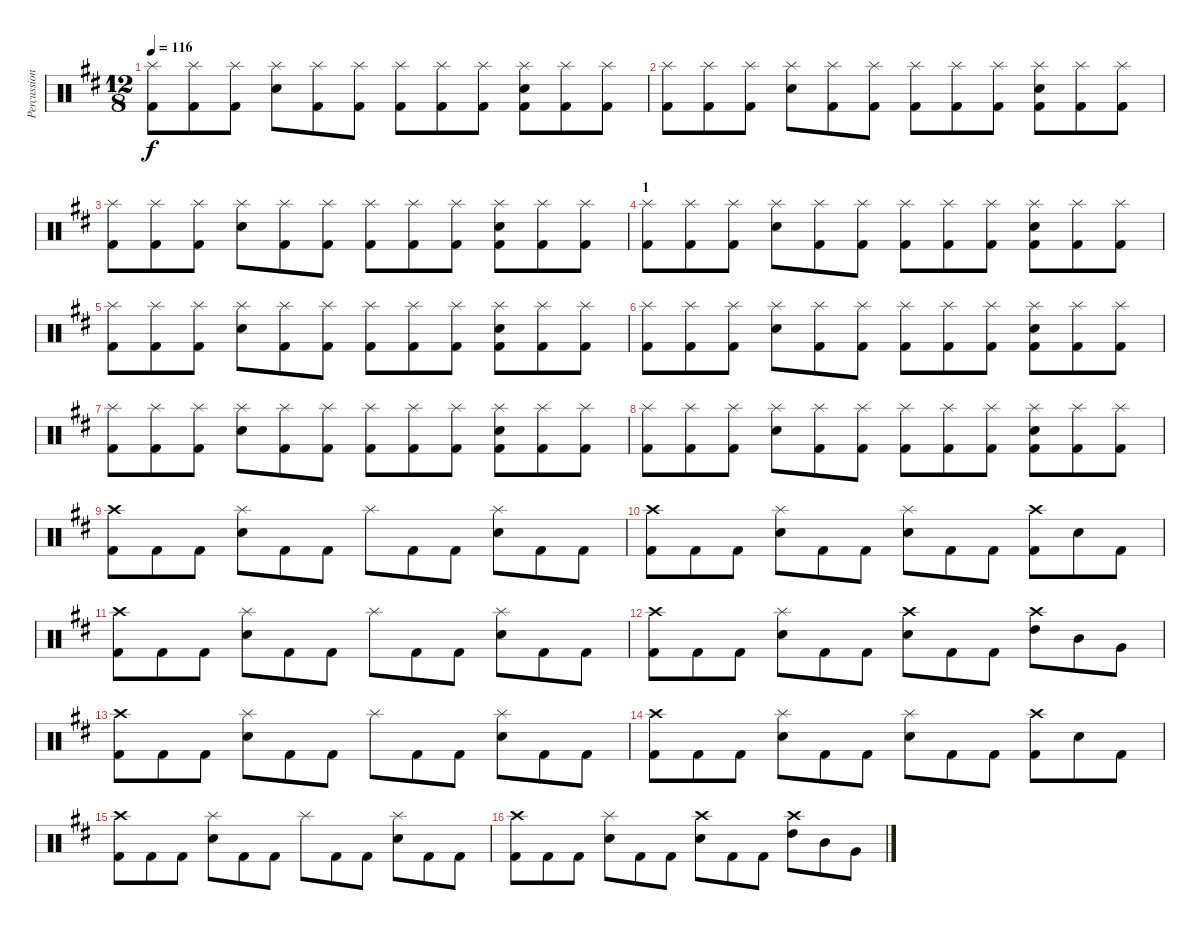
\track ("Percussion" "Percussion") {instrument percussion}
\staff {score}
\articulation defaults
\ts (12 8)
\tempo 116
\clef neutral
\ks bminor
("Splash (hit)" "Kick (hit) 2").8{dy f} ("Splash (hit)" "Kick (hit) 2").8 ("Splash (hit)" "Kick (hit) 2").8 ("Splash (hit)" "Snare (hit) 2").8 ("Splash (hit)" "Kick (hit) 2").8 ("Splash (hit)" "Kick (hit) 2").8 ("Splash (hit)" "Kick (hit) 2").8 ("Splash (hit)" "Kick (hit) 2").8 ("Splash (hit)" "Kick (hit) 2").8 ("Splash (hit)" "Snare (hit) 2" "Kick (hit) 2").8 ("Splash (hit)" "Kick (hit) 2").8 ("Splash (hit)" "Kick (hit) 2").8 |
("Splash (hit)" "Kick (hit) 2").8 ("Splash (hit)" "Kick (hit) 2").8 ("Splash (hit)" "Kick (hit) 2").8 ("Splash (hit)" "Snare (hit) 2").8 ("Splash (hit)" "Kick (hit) 2").8 ("Splash (hit)" "Kick (hit) 2").8 ("Splash (hit)" "Kick (hit) 2").8 ("Splash (hit)" "Kick (hit) 2").8 ("Splash (hit)" "Kick (hit) 2").8 ("Splash (hit)" "Snare (hit) 2" "Kick (hit) 2").8 ("Splash (hit)" "Kick (hit) 2").8 ("Splash (hit)" "Kick (hit) 2").8 |
("Splash (hit)" "Kick (hit) 2").8 ("Splash (hit)" "Kick (hit) 2").8 ("Splash (hit)" "Kick (hit) 2").8 ("Splash (hit)" "Snare (hit) 2").8 ("Splash (hit)" "Kick (hit) 2").8 ("Splash (hit)" "Kick (hit) 2").8 ("Splash (hit)" "Kick (hit) 2").8 ("Splash (hit)" "Kick (hit) 2").8 ("Splash (hit)" "Kick (hit) 2").8 ("Splash (hit)" "Snare (hit) 2" "Kick (hit) 2").8 ("Splash (hit)" "Kick (hit) 2").8 ("Splash (hit)" "Kick (hit) 2").8 |
\section ("" "1")
("Splash (hit)" "Kick (hit) 2").8 ("Splash (hit)" "Kick (hit) 2").8 ("Splash (hit)" "Kick (hit) 2").8 ("Splash (hit)" "Snare (hit) 2").8 ("Splash (hit)" "Kick (hit) 2").8 ("Splash (hit)" "Kick (hit) 2").8 ("Splash (hit)" "Kick (hit) 2").8 ("Splash (hit)" "Kick (hit) 2").8 ("Splash (hit)" "Kick (hit) 2").8 ("Splash (hit)" "Snare (hit) 2" "Kick (hit) 2").8 ("Splash (hit)" "Kick (hit) 2").8 ("Splash (hit)" "Kick (hit) 2").8 |
("Splash (hit)" "Kick (hit) 2").8 ("Splash (hit)" "Kick (hit) 2").8 ("Splash (hit)" "Kick (hit) 2").8 ("Splash (hit)" "Snare (hit) 2").8 ("Splash (hit)" "Kick (hit) 2").8 ("Splash (hit)" "Kick (hit) 2").8 ("Splash (hit)" "Kick (hit) 2").8 ("Splash (hit)" "Kick (hit) 2").8 ("Splash (hit)" "Kick (hit) 2").8 ("Splash (hit)" "Snare (hit) 2" "Kick (hit) 2").8 ("Splash (hit)" "Kick (hit) 2").8 ("Splash (hit)" "Kick (hit) 2").8 |
("Splash (hit)" "Kick (hit) 2").8 ("Splash (hit)" "Kick (hit) 2").8 ("Splash (hit)" "Kick (hit) 2").8 ("Splash (hit)" "Snare (hit) 2").8 ("Splash (hit)" "Kick (hit) 2").8 ("Splash (hit)" "Kick (hit) 2").8 ("Splash (hit)" "Kick (hit) 2").8 ("Splash (hit)" "Kick (hit) 2").8 ("Splash (hit)" "Kick (hit) 2").8 ("Splash (hit)" "Snare (hit) 2" "Kick (hit) 2").8 ("Splash (hit)" "Kick (hit) 2").8 ("Splash (hit)" "Kick (hit) 2").8 |
("Splash (hit)" "Kick (hit) 2").8 ("Splash (hit)" "Kick (hit) 2").8 ("Splash (hit)" "Kick (hit) 2").8 ("Splash (hit)" "Snare (hit) 2").8 ("Splash (hit)" "Kick (hit) 2").8 ("Splash (hit)" "Kick (hit) 2").8 ("Splash (hit)" "Kick (hit) 2").8 ("Splash (hit)" "Kick (hit) 2").8 ("Splash (hit)" "Kick (hit) 2").8 ("Splash (hit)" "Snare (hit) 2" "Kick (hit) 2").8 ("Splash (hit)" "Kick (hit) 2").8 ("Splash (hit)" "Kick (hit) 2").8 |
("Splash (hit)" "Kick (hit) 2").8 ("Splash (hit)" "Kick (hit) 2").8 ("Splash (hit)" "Kick (hit) 2").8 ("Splash (hit)" "Snare (hit) 2").8 ("Splash (hit)" "Kick (hit) 2").8 ("Splash (hit)" "Kick (hit) 2").8 ("Splash (hit)" "Kick (hit) 2").8 ("Splash (hit)" "Kick (hit) 2").8 ("Splash (hit)" "Kick (hit) 2").8 ("Splash (hit)" "Snare (hit) 2" "Kick (hit) 2").8 ("Splash (hit)" "Kick (hit) 2").8 ("Splash (hit)" "Kick (hit) 2").8 |
("Crash high (hit)" "Kick (hit) 2").8 "Kick (hit) 2".8 "Kick (hit) 2".8 ("Splash (hit)" "Snare (hit) 2").8 "Kick (hit) 2".8 "Kick (hit) 2".8 "Splash (hit)".8 "Kick (hit) 2".8 "Kick (hit) 2".8 ("Splash (hit)" "Snare (hit) 2").8 "Kick (hit) 2".8 "Kick (hit) 2".8 |
("Crash high (hit)" "Kick (hit) 2").8 "Kick (hit) 2".8 "Kick (hit) 2".8 ("Splash (hit)" "Snare (hit) 2").8 "Kick (hit) 2".8 "Kick (hit) 2".8 ("Splash (hit)" "Snare (hit) 2").8 "Kick (hit) 2".8 "Kick (hit) 2".8 ("Crash high (hit)" "Kick (hit) 2").8 "Snare (hit) 2".8 "Kick (hit) 2".8 |
("Crash high (hit)" "Kick (hit) 2").8 "Kick (hit) 2".8 "Kick (hit) 2".8 ("Splash (hit)" "Snare (hit) 2").8 "Kick (hit) 2".8 "Kick (hit) 2".8 "Splash (hit)".8 "Kick (hit) 2".8 "Kick (hit) 2".8 ("Splash (hit)" "Snare (hit) 2").8 "Kick (hit) 2".8 "Kick (hit) 2".8 |
("Crash high (hit)" "Kick (hit) 2").8 "Kick (hit) 2".8 "Kick (hit) 2".8 ("Splash (hit)" "Snare (hit) 2").8 "Kick (hit) 2".8 "Kick (hit) 2".8 ("Crash high (hit)" "Snare (hit) 2").8 "Kick (hit) 2".8 "Kick (hit) 2".8 ("Crash high (hit)" "High Tom (hit)").8 "Mid Tom (hit)".8 "Very Low Tom (hit)".8 |
("Crash high (hit)" "Kick (hit) 2").8 "Kick (hit) 2".8 "Kick (hit) 2".8 ("Splash (hit)" "Snare (hit) 2").8 "Kick (hit) 2".8 "Kick (hit) 2".8 "Splash (hit)".8 "Kick (hit) 2".8 "Kick (hit) 2".8 ("Splash (hit)" "Snare (hit) 2").8 "Kick (hit) 2".8 "Kick (hit) 2".8 |
("Crash high (hit)" "Kick (hit) 2").8 "Kick (hit) 2".8 "Kick (hit) 2".8 ("Splash (hit)" "Snare (hit) 2").8 "Kick (hit) 2".8 "Kick (hit) 2".8 ("Splash (hit)" "Snare (hit) 2").8 "Kick (hit) 2".8 "Kick (hit) 2".8 ("Crash high (hit)" "Kick (hit) 2").8 "Snare (hit) 2".8 "Kick (hit) 2".8 |
("Crash high (hit)" "Kick (hit) 2").8 "Kick (hit) 2".8 "Kick (hit) 2".8 ("Splash (hit)" "Snare (hit) 2").8 "Kick (hit) 2".8 "Kick (hit) 2".8 "Splash (hit)".8 "Kick (hit) 2".8 "Kick (hit) 2".8 ("Splash (hit)" "Snare (hit) 2").8 "Kick (hit) 2".8 "Kick (hit) 2".8 |
("Crash high (hit)" "Kick (hit) 2").8 "Kick (hit) 2".8 "Kick (hit) 2".8 ("Splash (hit)" "Snare (hit) 2").8 "Kick (hit) 2".8 "Kick (hit) 2".8 ("Crash high (hit)" "Snare (hit) 2").8 "Kick (hit) 2".8 "Kick (hit) 2".8 ("Crash high (hit)" "High Tom (hit)").8 "Mid Tom (hit)".8 "Very Low Tom (hit)".8
